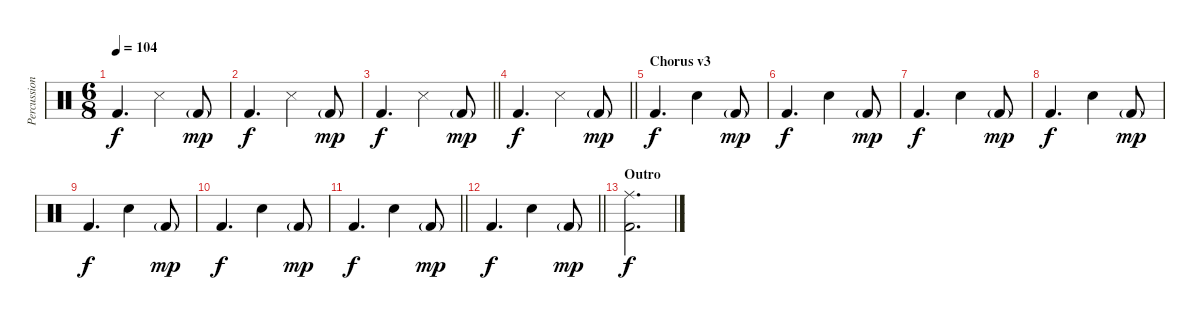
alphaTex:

\track ("Percussion" "Percussion") {instrument percussion}
\staff {score}
\articulation defaults
\ts (6 8)
\tempo 104
\clef neutral
\ks c "Kick (hit) 2".4{d dy f} "Snare (side stick) 3".4 "Kick (hit) 2"{g}.8{dy mp}
|
"Kick (hit) 2".4{d dy f} "Snare (side stick) 3".4 "Kick (hit) 2"{g}.8{dy mp} |
\barLineRight lightlight "Kick (hit) 2".4{d dy f} "Snare (side stick) 3".4 "Kick (hit) 2"{g}.8{dy mp}
|
\barLineRight lightlight "Kick (hit) 2".4{d dy f} "Snare (side stick) 3".4 "Kick (hit) 2"{g}.8{dy mp}
|
\section ("" "Chorus v3")
"Kick (hit) 2".4{d dy f} "Snare (hit) 2".4 "Kick (hit) 2"{g}.8{dy mp} |
"Kick (hit) 2".4{d dy f} "Snare (hit) 2".4 "Kick (hit) 2"{g}.8{dy mp} |
"Kick (hit) 2".4{d dy f} "Snare (hit) 2".4 "Kick (hit) 2"{g}.8{dy mp} |
"Kick (hit) 2".4{d dy f} "Snare (hit) 2".4 "Kick (hit) 2"{g}.8{dy mp} |
"Kick (hit) 2".4{d dy f} "Snare (hit) 2".4 "Kick (hit) 2"{g}.8{dy mp} |
"Kick (hit) 2".4{d dy f} "Snare (hit) 2".4 "Kick (hit) 2"{g}.8{dy mp} |
\barLineRight lightlight "Kick (hit) 2".4{d dy f} "Snare (hit) 2".4 "Kick (hit) 2"{g}.8{dy mp}
|
\barLineRight lightlight "Kick (hit) 2".4{d dy f} "Snare (hit) 2".4 "Kick (hit) 2"{g}.8{dy mp}
|
\section ("" "Outro")
("Ride (middle)" "Kick (hit) 2").2{d dy f}
